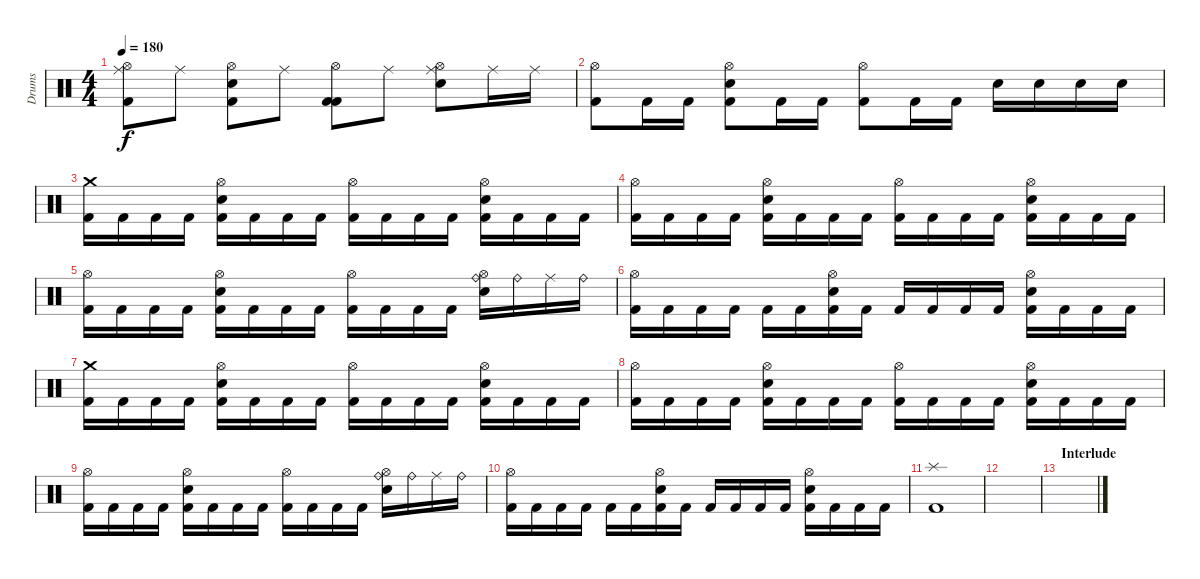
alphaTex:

\track ("Drums" "Drums") {instrument percussion}
\staff {score}
\articulation defaults
\ts (4 4)
\tempo 180
\clef neutral
\ks c
("Ride (middle)" "Hi-Hat (open)" "Kick (hit) 2").8{dy f} "Ride (middle)".8 ("Kick (hit) 2" "Hi-Hat (open)" "Electric Snare (hit)").8 "Ride (middle)".8 ("Kick (hit) 2" "Hi-Hat (open)" "Kick (hit) 2").8 "Ride (middle)".8 ("Ride (middle)" "Hi-Hat (open)" "Electric Snare (hit)").8 "Ride (middle)".16 "Ride (middle)".16 |
("Kick (hit) 2" "Hi-Hat (open)").8 "Kick (hit) 2".16 "Kick (hit) 2".16 ("Kick (hit) 2" "Electric Snare (hit)" "Hi-Hat (open)").8 "Kick (hit) 2".16 "Kick (hit) 2".16 ("Kick (hit) 2" "Hi-Hat (open)").8 "Kick (hit) 2".16 "Kick (hit) 2".16 "Electric Snare (hit)".16 "Electric Snare (hit)".16 "Electric Snare (hit)".16 "Electric Snare (hit)".16 |
("Kick (hit) 2" "Crash medium (hit)").16 "Kick (hit) 2".16 "Kick (hit) 2".16 "Kick (hit) 2".16 ("Kick (hit) 2" "Hi-Hat (open)" "Electric Snare (hit)").16 "Kick (hit) 2".16 "Kick (hit) 2".16 "Kick (hit) 2".16 ("Kick (hit) 2" "Hi-Hat (open)").16 "Kick (hit) 2".16 "Kick (hit) 2".16 "Kick (hit) 2".16 ("Kick (hit) 2" "Hi-Hat (open)" "Electric Snare (hit)").16 "Kick (hit) 2".16 "Kick (hit) 2".16 "Kick (hit) 2".16 |
("Kick (hit) 2" "Hi-Hat (open)").16 "Kick (hit) 2".16 "Kick (hit) 2".16 "Kick (hit) 2".16 ("Kick (hit) 2" "Hi-Hat (open)" "Electric Snare (hit)").16 "Kick (hit) 2".16 "Kick (hit) 2".16 "Kick (hit) 2".16 ("Kick (hit) 2" "Hi-Hat (open)").16 "Kick (hit) 2".16 "Kick (hit) 2".16 "Kick (hit) 2".16 ("Kick (hit) 2" "Hi-Hat (open)" "Electric Snare (hit)").16 "Kick (hit) 2".16 "Kick (hit) 2".16 "Kick (hit) 2".16 |
("Kick (hit) 2" "Hi-Hat (open)").16 "Kick (hit) 2".16 "Kick (hit) 2".16 "Kick (hit) 2".16 ("Kick (hit) 2" "Hi-Hat (open)" "Electric Snare (hit)").16 "Kick (hit) 2".16 "Kick (hit) 2".16 "Kick (hit) 2".16 ("Kick (hit) 2" "Hi-Hat (open)").16 "Kick (hit) 2".16 "Kick (hit) 2".16 "Kick (hit) 2".16 ("Ride (bell)" "Hi-Hat (open)" "Electric Snare (hit)").16 "Ride (bell)".16 "Ride (middle)".16 "Ride (bell)".16 |
("Kick (hit) 2" "Hi-Hat (open)").16 "Kick (hit) 2".16 "Kick (hit) 2".16 "Kick (hit) 2".16 "Kick (hit) 2".16 "Kick (hit) 2".16 ("Kick (hit) 2" "Hi-Hat (open)" "Electric Snare (hit)").16 "Kick (hit) 2".16 "Kick (hit) 2".16 "Kick (hit) 2".16 "Kick (hit) 2".16 "Kick (hit) 2".16 ("Kick (hit) 2" "Hi-Hat (open)" "Electric Snare (hit)").16 "Kick (hit) 2".16 "Kick (hit) 2".16 "Kick (hit) 2".16 |
("Kick (hit) 2" "Crash medium (hit)").16 "Kick (hit) 2".16 "Kick (hit) 2".16 "Kick (hit) 2".16 ("Kick (hit) 2" "Hi-Hat (open)" "Electric Snare (hit)").16 "Kick (hit) 2".16 "Kick (hit) 2".16 "Kick (hit) 2".16 ("Kick (hit) 2" "Hi-Hat (open)").16 "Kick (hit) 2".16 "Kick (hit) 2".16 "Kick (hit) 2".16 ("Kick (hit) 2" "Hi-Hat (open)" "Electric Snare (hit)").16 "Kick (hit) 2".16 "Kick (hit) 2".16 "Kick (hit) 2".16 |
("Kick (hit) 2" "Hi-Hat (open)").16 "Kick (hit) 2".16 "Kick (hit) 2".16 "Kick (hit) 2".16 ("Kick (hit) 2" "Hi-Hat (open)" "Electric Snare (hit)").16 "Kick (hit) 2".16 "Kick (hit) 2".16 "Kick (hit) 2".16 ("Kick (hit) 2" "Hi-Hat (open)").16 "Kick (hit) 2".16 "Kick (hit) 2".16 "Kick (hit) 2".16 ("Kick (hit) 2" "Hi-Hat (open)" "Electric Snare (hit)").16 "Kick (hit) 2".16 "Kick (hit) 2".16 "Kick (hit) 2".16 |
("Kick (hit) 2" "Hi-Hat (open)").16 "Kick (hit) 2".16 "Kick (hit) 2".16 "Kick (hit) 2".16 ("Kick (hit) 2" "Hi-Hat (open)" "Electric Snare (hit)").16 "Kick (hit) 2".16 "Kick (hit) 2".16 "Kick (hit) 2".16 ("Kick (hit) 2" "Hi-Hat (open)").16 "Kick (hit) 2".16 "Kick (hit) 2".16 "Kick (hit) 2".16 ("Ride (bell)" "Hi-Hat (open)" "Electric Snare (hit)").16 "Ride (bell)".16 "Ride (middle)".16 "Ride (bell)".16 |
("Kick (hit) 2" "Hi-Hat (open)").16 "Kick (hit) 2".16 "Kick (hit) 2".16 "Kick (hit) 2".16 "Kick (hit) 2".16 "Kick (hit) 2".16 ("Kick (hit) 2" "Hi-Hat (open)" "Electric Snare (hit)").16 "Kick (hit) 2".16 "Kick (hit) 2".16 "Kick (hit) 2".16 "Kick (hit) 2".16 "Kick (hit) 2".16 ("Kick (hit) 2" "Hi-Hat (open)" "Electric Snare (hit)").16 "Kick (hit) 2".16 "Kick (hit) 2".16 "Kick (hit) 2".16 |
("Splash (hit)" "Kick (hit) 2").1 |
|
\section ("" "Interlude")
